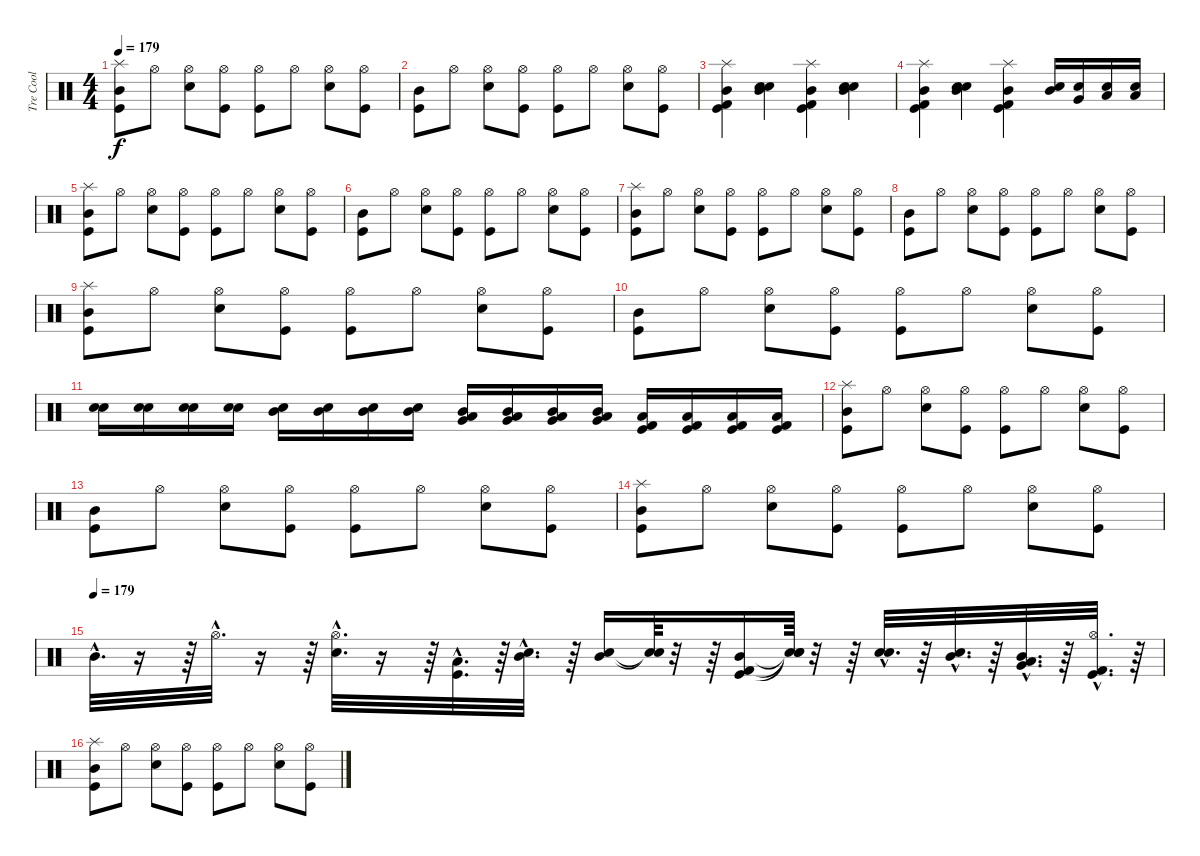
\track ("Tre Cool" "Tre Cool") {instrument percussion}
\staff {score}
\articulation defaults
\ts (4 4)
\tempo 179
\clef neutral
\ks c
("Splash (hit)" "Mid Tom (hit)" "Kick (hit)").8{dy f} "Hi-Hat (open)".8 ("Hi-Hat (open)" "Snare (hit) 2").8 ("Hi-Hat (open)" "Kick (hit)").8 ("Hi-Hat (open)" "Kick (hit)").8 "Hi-Hat (open)".8 ("Hi-Hat (open)" "Snare (hit) 2").8 ("Hi-Hat (open)" "Kick (hit)").8 |
("Mid Tom (hit)" "Kick (hit)").8 "Hi-Hat (open)".8 ("Hi-Hat (open)" "Snare (hit) 2").8 ("Hi-Hat (open)" "Kick (hit)").8 ("Hi-Hat (open)" "Kick (hit)").8 "Hi-Hat (open)".8 ("Hi-Hat (open)" "Snare (hit) 2").8 ("Hi-Hat (open)" "Kick (hit)").8 |
("Mid Tom (hit)" "Kick (hit)" "Splash (hit)" "Kick (hit) 2").4 ("Mid Tom (hit)" "Snare (hit) 2" "Electric Snare (hit)").4 ("Mid Tom (hit)" "Kick (hit)" "Splash (hit)" "Kick (hit) 2").4 ("Mid Tom (hit)" "Snare (hit) 2" "Electric Snare (hit)").4 |
("Mid Tom (hit)" "Kick (hit)" "Splash (hit)" "Kick (hit) 2").4 ("Mid Tom (hit)" "Snare (hit) 2" "Electric Snare (hit)").4 ("Mid Tom (hit)" "Kick (hit)" "Splash (hit)" "Kick (hit) 2").4 ("Electric Snare (hit)" "Mid Tom (hit)").16 ("Electric Snare (hit)" "Very Low Tom (hit)").16 ("Electric Snare (hit)" "Low Tom (hit)").16 ("Electric Snare (hit)" "Low Tom (hit)").16 |
("Splash (hit)" "Mid Tom (hit)" "Kick (hit)").8 "Hi-Hat (open)".8 ("Hi-Hat (open)" "Snare (hit) 2").8 ("Hi-Hat (open)" "Kick (hit)").8 ("Hi-Hat (open)" "Kick (hit)").8 "Hi-Hat (open)".8 ("Hi-Hat (open)" "Snare (hit) 2").8 ("Hi-Hat (open)" "Kick (hit)").8 |
("Mid Tom (hit)" "Kick (hit)").8 "Hi-Hat (open)".8 ("Hi-Hat (open)" "Snare (hit) 2").8 ("Hi-Hat (open)" "Kick (hit)").8 ("Hi-Hat (open)" "Kick (hit)").8 "Hi-Hat (open)".8 ("Hi-Hat (open)" "Snare (hit) 2").8 ("Hi-Hat (open)" "Kick (hit)").8 |
("Splash (hit)" "Mid Tom (hit)" "Kick (hit)").8 "Hi-Hat (open)".8 ("Hi-Hat (open)" "Snare (hit) 2").8 ("Hi-Hat (open)" "Kick (hit)").8 ("Hi-Hat (open)" "Kick (hit)").8 "Hi-Hat (open)".8 ("Hi-Hat (open)" "Snare (hit) 2").8 ("Hi-Hat (open)" "Kick (hit)").8 |
("Mid Tom (hit)" "Kick (hit)").8 "Hi-Hat (open)".8 ("Hi-Hat (open)" "Snare (hit) 2").8 ("Hi-Hat (open)" "Kick (hit)").8 ("Hi-Hat (open)" "Kick (hit)").8 "Hi-Hat (open)".8 ("Hi-Hat (open)" "Snare (hit) 2").8 ("Hi-Hat (open)" "Kick (hit)").8 |
("Splash (hit)" "Mid Tom (hit)" "Kick (hit)").8 "Hi-Hat (open)".8 ("Hi-Hat (open)" "Snare (hit) 2").8 ("Hi-Hat (open)" "Kick (hit)").8 ("Hi-Hat (open)" "Kick (hit)").8 "Hi-Hat (open)".8 ("Hi-Hat (open)" "Snare (hit) 2").8 ("Hi-Hat (open)" "Kick (hit)").8 |
("Mid Tom (hit)" "Kick (hit)").8 "Hi-Hat (open)".8 ("Hi-Hat (open)" "Snare (hit) 2").8 ("Hi-Hat (open)" "Kick (hit)").8 ("Hi-Hat (open)" "Kick (hit)").8 "Hi-Hat (open)".8 ("Hi-Hat (open)" "Snare (hit) 2").8 ("Hi-Hat (open)" "Kick (hit)").8 |
("Electric Snare (hit)" "Snare (hit) 2").16 ("Electric Snare (hit)" "Snare (hit) 2").16 ("Electric Snare (hit)" "Snare (hit) 2").16 ("Electric Snare (hit)" "Snare (hit) 2").16 ("Snare (hit) 2" "Mid Tom (hit)").16 ("Snare (hit) 2" "Mid Tom (hit)").16 ("Snare (hit) 2" "Mid Tom (hit)").16 ("Snare (hit) 2" "Mid Tom (hit)").16 ("Mid Tom (hit)" "Very Low Tom (hit)" "Low Floor Tom (hit)").16 ("Mid Tom (hit)" "Very Low Tom (hit)" "Low Floor Tom (hit)").16 ("Mid Tom (hit)" "Very Low Tom (hit)" "Low Floor Tom (hit)").16 ("Mid Tom (hit)" "Very Low Tom (hit)" "Low Floor Tom (hit)").16 ("Kick (hit)" "Kick (hit) 2" "Low Floor Tom (hit)").16 ("Kick (hit)" "Kick (hit) 2" "Low Floor Tom (hit)").16 ("Kick (hit)" "Kick (hit) 2" "Low Floor Tom (hit)").16 ("Kick (hit)" "Kick (hit) 2" "Low Floor Tom (hit)").16 |
("Splash (hit)" "Mid Tom (hit)" "Kick (hit)").8 "Hi-Hat (open)".8 ("Hi-Hat (open)" "Snare (hit) 2").8 ("Hi-Hat (open)" "Kick (hit)").8 ("Hi-Hat (open)" "Kick (hit)").8 "Hi-Hat (open)".8 ("Hi-Hat (open)" "Snare (hit) 2").8 ("Hi-Hat (open)" "Kick (hit)").8 |
("Mid Tom (hit)" "Kick (hit)").8 "Hi-Hat (open)".8 ("Hi-Hat (open)" "Snare (hit) 2").8 ("Hi-Hat (open)" "Kick (hit)").8 ("Hi-Hat (open)" "Kick (hit)").8 "Hi-Hat (open)".8 ("Hi-Hat (open)" "Snare (hit) 2").8 ("Hi-Hat (open)" "Kick (hit)").8 |
("Splash (hit)" "Mid Tom (hit)" "Kick (hit)").8 "Hi-Hat (open)".8 ("Hi-Hat (open)" "Snare (hit) 2").8 ("Hi-Hat (open)" "Kick (hit)").8 ("Hi-Hat (open)" "Kick (hit)").8 "Hi-Hat (open)".8 ("Hi-Hat (open)" "Snare (hit) 2").8 ("Hi-Hat (open)" "Kick (hit)").8 |
\tempo (179)
"Mid Tom (hit)"{hac}.32{d} r.16 r.64 "Hi-Hat (open)"{hac}.32{d} r.16 r.64 ("Hi-Hat (open)"{hac} "Snare (hit) 2"{hac}).32{d} r.16 r.64 ("Kick (hit)"{hac} "Low Tom (hit)"{hac}).32{d} r.64 ("Snare (hit) 2"{hac} "Mid Tom (hit)"{hac}).32{d} r.64 ("Snare (hit) 2" "Mid Tom (hit)").16 ("Snare (hit)"{t} "Snare (hit)"{t}).64 r.32 r.64 ("Mid Tom (hit)" "Kick (hit)" "Kick (hit) 2").16 ("Snare (hit)"{t} "Snare (hit)"{t} "Snare (hit)"{t}).64 r.32 r.64 ("Electric Snare (hit)"{hac} "Snare (hit) 2"{hac}).32{d} r.64 ("Snare (hit) 2"{hac} "Mid Tom (hit)"{hac}).32{d} r.64 ("Low Floor Tom (hit)"{hac} "Mid Tom (hit)"{hac} "Very Low Tom (hit)"{hac}).32{d} r.64 ("Kick (hit)"{hac} "Kick (hit) 2"{hac} "Hi-Hat (open)"{hac}).32{d} r.64 |
("Splash (hit)" "Mid Tom (hit)" "Kick (hit)").8 "Hi-Hat (open)".8 ("Hi-Hat (open)" "Snare (hit) 2").8 ("Hi-Hat (open)" "Kick (hit)").8 ("Hi-Hat (open)" "Kick (hit)").8 "Hi-Hat (open)".8 ("Hi-Hat (open)" "Snare (hit) 2").8 ("Hi-Hat (open)" "Kick (hit)").8
